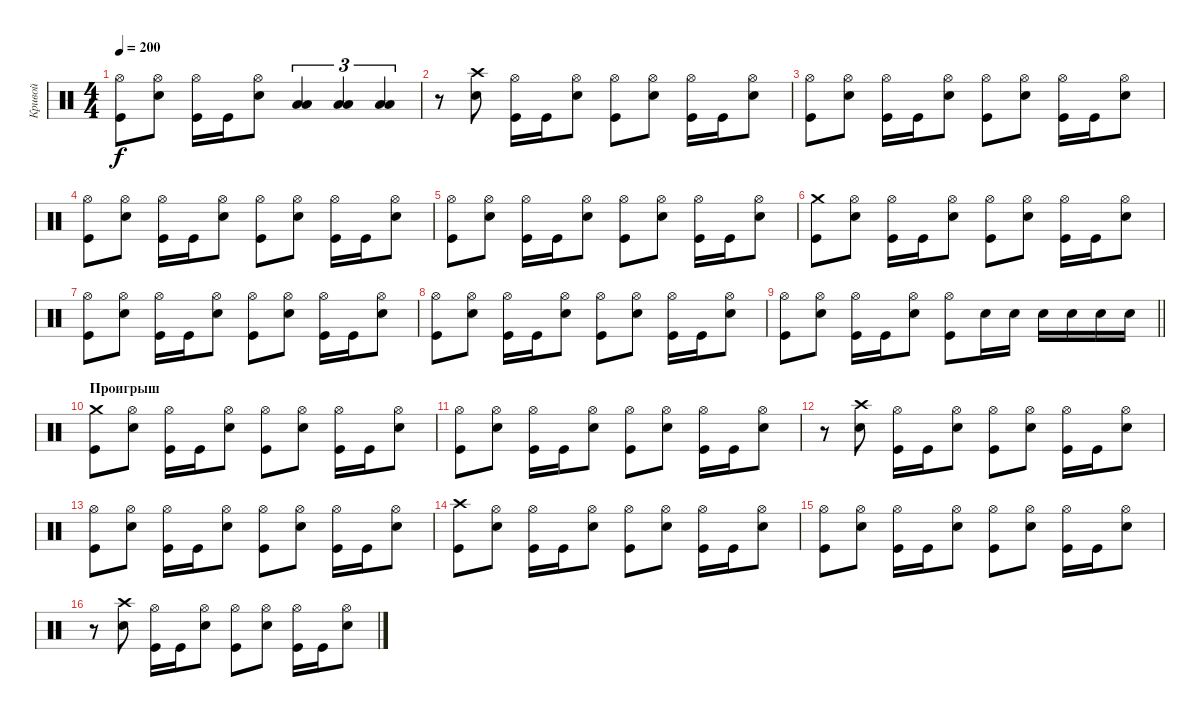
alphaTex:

\track ("Кривой" "Кривой") {instrument percussion}
\staff {score}
\articulation defaults
\ts (4 4)
\tempo 200
\clef neutral
\ks c
("Hi-Hat (open)" "Kick (hit)").8{dy f} ("Hi-Hat (open)" "Electric Snare (hit)").8 ("Hi-Hat (open)" "Kick (hit)").16 "Kick (hit)".16 ("Hi-Hat (open)" "Electric Snare (hit)").8 ("Low Tom (hit)" "Low Floor Tom (hit)").4{tu (3 2)} ("Low Tom (hit)" "Low Floor Tom (hit)").4{tu (3 2)} ("Low Tom (hit)" "Low Floor Tom (hit)").4{tu (3 2)} |
r.8 ("Crash high (hit)" "Electric Snare (hit)").8 ("Hi-Hat (open)" "Kick (hit)").16 "Kick (hit)".16 ("Hi-Hat (open)" "Electric Snare (hit)").8 ("Hi-Hat (open)" "Kick (hit)").8 ("Hi-Hat (open)" "Electric Snare (hit)").8 ("Hi-Hat (open)" "Kick (hit)").16 "Kick (hit)".16 ("Hi-Hat (open)" "Electric Snare (hit)").8 |
("Hi-Hat (open)" "Kick (hit)").8 ("Hi-Hat (open)" "Electric Snare (hit)").8 ("Hi-Hat (open)" "Kick (hit)").16 "Kick (hit)".16 ("Hi-Hat (open)" "Electric Snare (hit)").8 ("Hi-Hat (open)" "Kick (hit)").8 ("Hi-Hat (open)" "Electric Snare (hit)").8 ("Hi-Hat (open)" "Kick (hit)").16 "Kick (hit)".16 ("Hi-Hat (open)" "Electric Snare (hit)").8 |
("Hi-Hat (open)" "Kick (hit)").8 ("Hi-Hat (open)" "Electric Snare (hit)").8 ("Hi-Hat (open)" "Kick (hit)").16 "Kick (hit)".16 ("Hi-Hat (open)" "Electric Snare (hit)").8 ("Hi-Hat (open)" "Kick (hit)").8 ("Hi-Hat (open)" "Electric Snare (hit)").8 ("Hi-Hat (open)" "Kick (hit)").16 "Kick (hit)".16 ("Hi-Hat (open)" "Electric Snare (hit)").8 |
("Hi-Hat (open)" "Kick (hit)").8 ("Hi-Hat (open)" "Electric Snare (hit)").8 ("Hi-Hat (open)" "Kick (hit)").16 "Kick (hit)".16 ("Hi-Hat (open)" "Electric Snare (hit)").8 ("Hi-Hat (open)" "Kick (hit)").8 ("Hi-Hat (open)" "Electric Snare (hit)").8 ("Hi-Hat (open)" "Kick (hit)").16 "Kick (hit)".16 ("Hi-Hat (open)" "Electric Snare (hit)").8 |
("Crash medium (hit)" "Kick (hit)").8 ("Hi-Hat (open)" "Electric Snare (hit)").8 ("Hi-Hat (open)" "Kick (hit)").16 "Kick (hit)".16 ("Hi-Hat (open)" "Electric Snare (hit)").8 ("Hi-Hat (open)" "Kick (hit)").8 ("Hi-Hat (open)" "Electric Snare (hit)").8 ("Hi-Hat (open)" "Kick (hit)").16 "Kick (hit)".16 ("Hi-Hat (open)" "Electric Snare (hit)").8 |
("Hi-Hat (open)" "Kick (hit)").8 ("Hi-Hat (open)" "Electric Snare (hit)").8 ("Hi-Hat (open)" "Kick (hit)").16 "Kick (hit)".16 ("Hi-Hat (open)" "Electric Snare (hit)").8 ("Hi-Hat (open)" "Kick (hit)").8 ("Hi-Hat (open)" "Electric Snare (hit)").8 ("Hi-Hat (open)" "Kick (hit)").16 "Kick (hit)".16 ("Hi-Hat (open)" "Electric Snare (hit)").8 |
("Hi-Hat (open)" "Kick (hit)").8 ("Hi-Hat (open)" "Electric Snare (hit)").8 ("Hi-Hat (open)" "Kick (hit)").16 "Kick (hit)".16 ("Hi-Hat (open)" "Electric Snare (hit)").8 ("Hi-Hat (open)" "Kick (hit)").8 ("Hi-Hat (open)" "Electric Snare (hit)").8 ("Hi-Hat (open)" "Kick (hit)").16 "Kick (hit)".16 ("Hi-Hat (open)" "Electric Snare (hit)").8 |
\barLineRight lightlight
("Hi-Hat (open)" "Kick (hit)").8 ("Hi-Hat (open)" "Electric Snare (hit)").8 ("Hi-Hat (open)" "Kick (hit)").16 "Kick (hit)".16 ("Hi-Hat (open)" "Electric Snare (hit)").8 ("Hi-Hat (open)" "Kick (hit)").8 "Electric Snare (hit)".16 "Electric Snare (hit)".16 "Electric Snare (hit)".16 "Electric Snare (hit)".16 "Electric Snare (hit)".16 "Electric Snare (hit)".16 |
\section ("" "Проигрыш")
("Crash medium (hit)" "Kick (hit)").8 ("Hi-Hat (open)" "Electric Snare (hit)").8 ("Hi-Hat (open)" "Kick (hit)").16 "Kick (hit)".16 ("Hi-Hat (open)" "Electric Snare (hit)").8 ("Hi-Hat (open)" "Kick (hit)").8 ("Hi-Hat (open)" "Electric Snare (hit)").8 ("Hi-Hat (open)" "Kick (hit)").16 "Kick (hit)".16 ("Hi-Hat (open)" "Electric Snare (hit)").8 |
("Hi-Hat (open)" "Kick (hit)").8 ("Hi-Hat (open)" "Electric Snare (hit)").8 ("Hi-Hat (open)" "Kick (hit)").16 "Kick (hit)".16 ("Hi-Hat (open)" "Electric Snare (hit)").8 ("Hi-Hat (open)" "Kick (hit)").8 ("Hi-Hat (open)" "Electric Snare (hit)").8 ("Hi-Hat (open)" "Kick (hit)").16 "Kick (hit)".16 ("Hi-Hat (open)" "Electric Snare (hit)").8 |
r.8 ("Crash high (hit)" "Electric Snare (hit)").8 ("Hi-Hat (open)" "Kick (hit)").16 "Kick (hit)".16 ("Hi-Hat (open)" "Electric Snare (hit)").8 ("Hi-Hat (open)" "Kick (hit)").8 ("Hi-Hat (open)" "Electric Snare (hit)").8 ("Hi-Hat (open)" "Kick (hit)").16 "Kick (hit)".16 ("Hi-Hat (open)" "Electric Snare (hit)").8 |
("Hi-Hat (open)" "Kick (hit)").8 ("Hi-Hat (open)" "Electric Snare (hit)").8 ("Hi-Hat (open)" "Kick (hit)").16 "Kick (hit)".16 ("Hi-Hat (open)" "Electric Snare (hit)").8 ("Hi-Hat (open)" "Kick (hit)").8 ("Hi-Hat (open)" "Electric Snare (hit)").8 ("Hi-Hat (open)" "Kick (hit)").16 "Kick (hit)".16 ("Hi-Hat (open)" "Electric Snare (hit)").8 |
("Crash high (hit)" "Kick (hit)").8 ("Hi-Hat (open)" "Electric Snare (hit)").8 ("Hi-Hat (open)" "Kick (hit)").16 "Kick (hit)".16 ("Hi-Hat (open)" "Electric Snare (hit)").8 ("Hi-Hat (open)" "Kick (hit)").8 ("Hi-Hat (open)" "Electric Snare (hit)").8 ("Hi-Hat (open)" "Kick (hit)").16 "Kick (hit)".16 ("Hi-Hat (open)" "Electric Snare (hit)").8 |
("Hi-Hat (open)" "Kick (hit)").8 ("Hi-Hat (open)" "Electric Snare (hit)").8 ("Hi-Hat (open)" "Kick (hit)").16 "Kick (hit)".16 ("Hi-Hat (open)" "Electric Snare (hit)").8 ("Hi-Hat (open)" "Kick (hit)").8 ("Hi-Hat (open)" "Electric Snare (hit)").8 ("Hi-Hat (open)" "Kick (hit)").16 "Kick (hit)".16 ("Hi-Hat (open)" "Electric Snare (hit)").8 |
r.8 ("Crash high (hit)" "Electric Snare (hit)").8 ("Hi-Hat (open)" "Kick (hit)").16 "Kick (hit)".16 ("Hi-Hat (open)" "Electric Snare (hit)").8 ("Hi-Hat (open)" "Kick (hit)").8 ("Hi-Hat (open)" "Electric Snare (hit)").8 ("Hi-Hat (open)" "Kick (hit)").16 "Kick (hit)".16 ("Hi-Hat (open)" "Electric Snare (hit)").8
